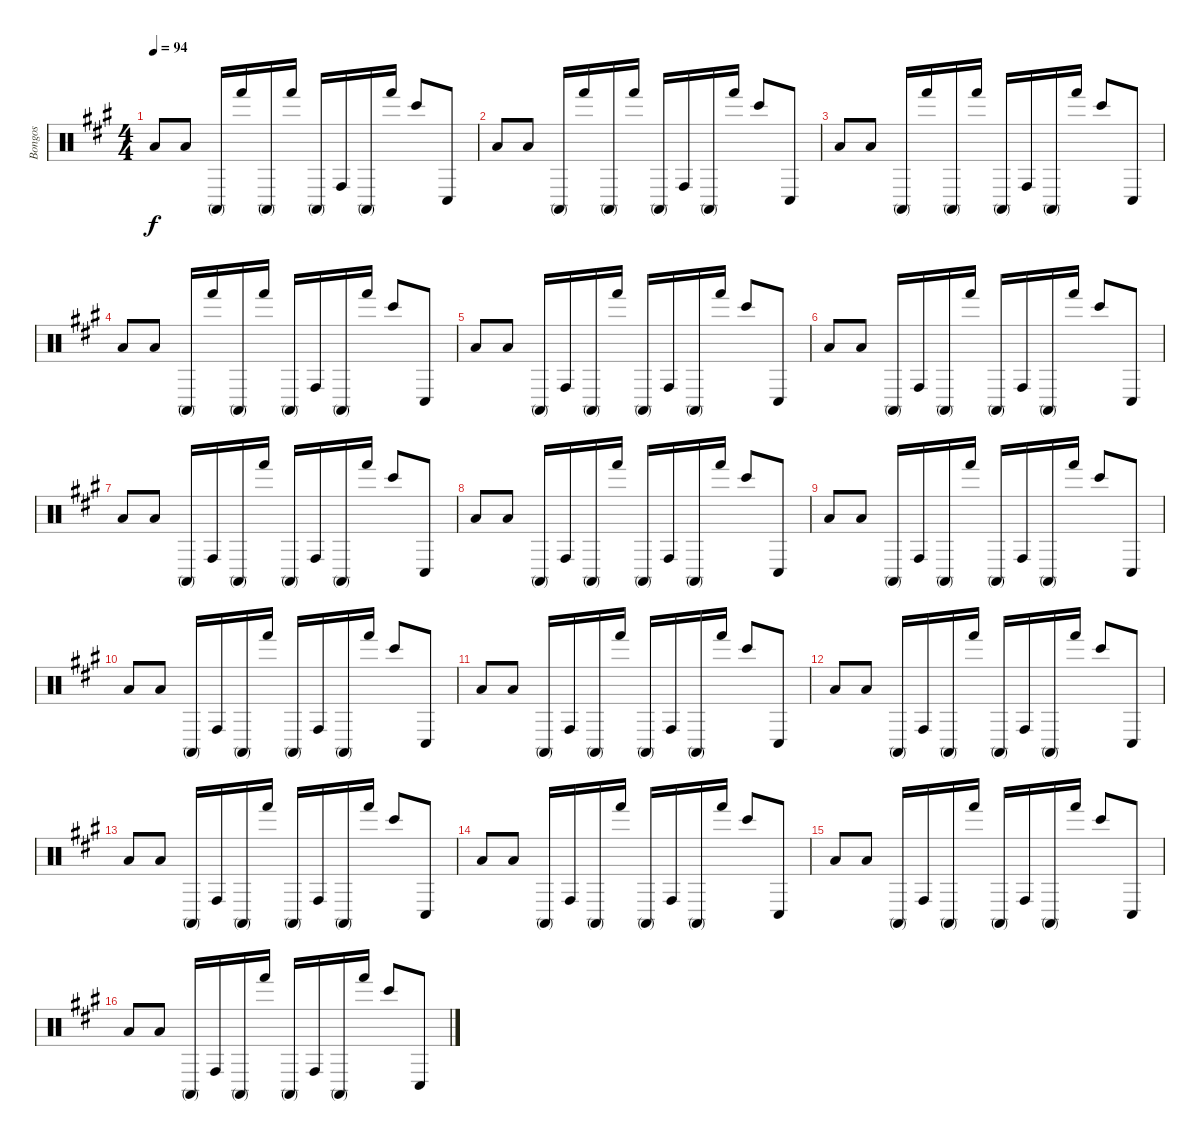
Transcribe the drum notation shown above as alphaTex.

\track ("Bongos" "Bongos") {instrument percussion}
\staff {score}
\articulation defaults
\ts (4 4)
\tempo 94
\clef neutral
\ks a "Low Floor Tom (hit)".8{dy f volume 9} "Low Floor Tom (hit)".8 "Conga high (mute)".16 "Hand (hit)".16 "Conga high (mute)".16 "Hand (hit)".16 "Conga high (mute)".16 "Conga high (hit)".16 "Conga high (mute)".16 "Hand (hit)".16 "Bongo High (hit)".8 "Conga low (hit)".8
|
"Low Floor Tom (hit)".8{volume 10} "Low Floor Tom (hit)".8 "Conga high (mute)".16 "Hand (hit)".16 "Conga high (mute)".16 "Hand (hit)".16 "Conga high (mute)".16 "Conga high (hit)".16 "Conga high (mute)".16 "Hand (hit)".16 "Bongo High (hit)".8 "Conga low (hit)".8 |
"Low Floor Tom (hit)".8 "Low Floor Tom (hit)".8 "Conga high (mute)".16 "Hand (hit)".16 "Conga high (mute)".16 "Hand (hit)".16 "Conga high (mute)".16 "Conga high (hit)".16 "Conga high (mute)".16 "Hand (hit)".16 "Bongo High (hit)".8 "Conga low (hit)".8 |
"Low Floor Tom (hit)".8 "Low Floor Tom (hit)".8 "Conga high (mute)".16 "Hand (hit)".16 "Conga high (mute)".16 "Hand (hit)".16 "Conga high (mute)".16 "Conga high (hit)".16 "Conga high (mute)".16 "Hand (hit)".16 "Bongo High (hit)".8 "Conga low (hit)".8 |
"Low Floor Tom (hit)".8 "Low Floor Tom (hit)".8 "Conga high (mute)".16 "Conga high (hit)".16 "Conga high (mute)".16 "Hand (hit)".16 "Conga high (mute)".16 "Conga high (hit)".16 "Conga high (mute)".16 "Hand (hit)".16 "Bongo High (hit)".8 "Conga low (hit)".8 |
"Low Floor Tom (hit)".8 "Low Floor Tom (hit)".8 "Conga high (mute)".16 "Conga high (hit)".16 "Conga high (mute)".16 "Hand (hit)".16 "Conga high (mute)".16 "Conga high (hit)".16 "Conga high (mute)".16 "Hand (hit)".16 "Bongo High (hit)".8 "Conga low (hit)".8 |
"Low Floor Tom (hit)".8 "Low Floor Tom (hit)".8 "Conga high (mute)".16 "Conga high (hit)".16 "Conga high (mute)".16 "Hand (hit)".16 "Conga high (mute)".16 "Conga high (hit)".16 "Conga high (mute)".16 "Hand (hit)".16 "Bongo High (hit)".8 "Conga low (hit)".8 |
"Low Floor Tom (hit)".8 "Low Floor Tom (hit)".8 "Conga high (mute)".16 "Conga high (hit)".16 "Conga high (mute)".16 "Hand (hit)".16 "Conga high (mute)".16 "Conga high (hit)".16 "Conga high (mute)".16 "Hand (hit)".16 "Bongo High (hit)".8 "Conga low (hit)".8 |
"Low Floor Tom (hit)".8 "Low Floor Tom (hit)".8 "Conga high (mute)".16 "Conga high (hit)".16 "Conga high (mute)".16 "Hand (hit)".16 "Conga high (mute)".16 "Conga high (hit)".16 "Conga high (mute)".16 "Hand (hit)".16 "Bongo High (hit)".8 "Conga low (hit)".8 |
"Low Floor Tom (hit)".8 "Low Floor Tom (hit)".8 "Conga high (mute)".16 "Conga high (hit)".16 "Conga high (mute)".16 "Hand (hit)".16 "Conga high (mute)".16 "Conga high (hit)".16 "Conga high (mute)".16 "Hand (hit)".16 "Bongo High (hit)".8 "Conga low (hit)".8 |
"Low Floor Tom (hit)".8 "Low Floor Tom (hit)".8 "Conga high (mute)".16 "Conga high (hit)".16 "Conga high (mute)".16 "Hand (hit)".16 "Conga high (mute)".16 "Conga high (hit)".16 "Conga high (mute)".16 "Hand (hit)".16 "Bongo High (hit)".8 "Conga low (hit)".8 |
"Low Floor Tom (hit)".8 "Low Floor Tom (hit)".8 "Conga high (mute)".16 "Conga high (hit)".16 "Conga high (mute)".16 "Hand (hit)".16 "Conga high (mute)".16 "Conga high (hit)".16 "Conga high (mute)".16 "Hand (hit)".16 "Bongo High (hit)".8 "Conga low (hit)".8 |
"Low Floor Tom (hit)".8 "Low Floor Tom (hit)".8 "Conga high (mute)".16 "Conga high (hit)".16 "Conga high (mute)".16 "Hand (hit)".16 "Conga high (mute)".16 "Conga high (hit)".16 "Conga high (mute)".16 "Hand (hit)".16 "Bongo High (hit)".8 "Conga low (hit)".8 |
"Low Floor Tom (hit)".8{volume 8} "Low Floor Tom (hit)".8 "Conga high (mute)".16 "Conga high (hit)".16 "Conga high (mute)".16 "Hand (hit)".16 "Conga high (mute)".16 "Conga high (hit)".16 "Conga high (mute)".16 "Hand (hit)".16 "Bongo High (hit)".8 "Conga low (hit)".8 |
"Low Floor Tom (hit)".8 "Low Floor Tom (hit)".8 "Conga high (mute)".16 "Conga high (hit)".16 "Conga high (mute)".16 "Hand (hit)".16 "Conga high (mute)".16 "Conga high (hit)".16 "Conga high (mute)".16 "Hand (hit)".16 "Bongo High (hit)".8 "Conga low (hit)".8 |
"Low Floor Tom (hit)".8 "Low Floor Tom (hit)".8 "Conga high (mute)".16 "Conga high (hit)".16 "Conga high (mute)".16 "Hand (hit)".16 "Conga high (mute)".16 "Conga high (hit)".16 "Conga high (mute)".16 "Hand (hit)".16 "Bongo High (hit)".8 "Conga low (hit)".8
